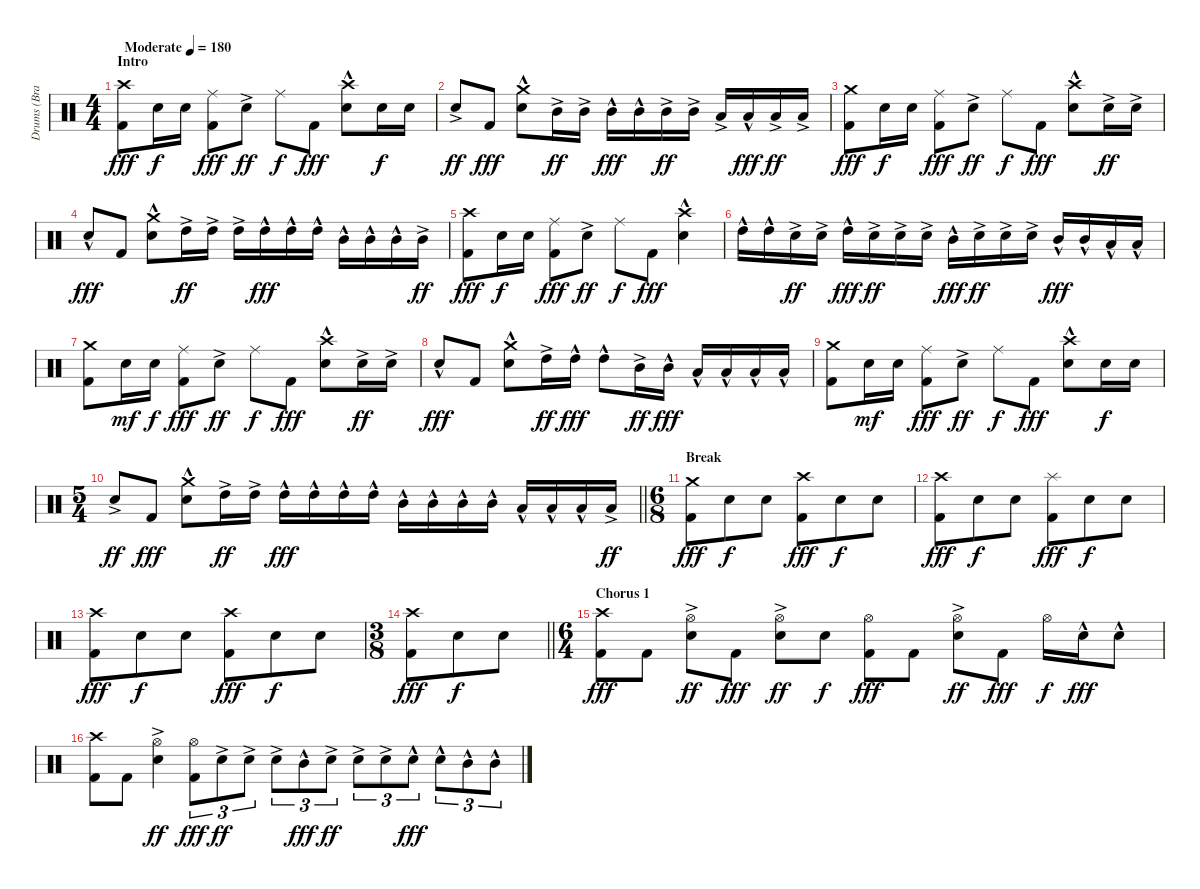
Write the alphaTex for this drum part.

\track ("Drums (Brann Dailor)" "Drums (Bra") {instrument percussion}
\staff {score}
\articulation defaults
\ts (4 4)
\section ("" "Intro")
\tempo (180 "Moderate")
\clef neutral
\ks c
("Crash high (hit)" "Kick (hit) 2").8{dy fff} "Electric Snare (hit)".16{dy f} "Electric Snare (hit)".16 ("Ride (middle)" "Kick (hit) 2").8{dy fff} "Electric Snare (hit)"{ac}.8{dy ff} "Ride (middle)".8{dy f} "Kick (hit) 2".8{dy fff} ("Crash high (hit)" "Electric Snare (hit)"{hac}).8 "Electric Snare (hit)".16{dy f} "Electric Snare (hit)".16 |
"Electric Snare (hit)"{ac}.8{dy ff} "Kick (hit) 2".8{dy fff} ("Crash medium (hit)" "Electric Snare (hit)"{hac}).8 "Mid Tom (hit)"{ac}.16{dy ff} "Mid Tom (hit)"{ac}.16 "Mid Tom (hit)"{hac}.16{dy fff} "Mid Tom (hit)"{hac}.16 "Mid Tom (hit)"{ac}.16{dy ff} "Mid Tom (hit)"{ac}.16 "Low Tom (hit)"{ac}.16 "Low Tom (hit)"{hac}.16{dy fff} "Low Tom (hit)"{ac}.16{dy ff} "Low Tom (hit)"{ac}.16 |
("Crash medium (hit)" "Kick (hit) 2").8{dy fff} "Electric Snare (hit)".16{dy f} "Electric Snare (hit)".16 ("Ride (middle)" "Kick (hit) 2").8{dy fff} "Electric Snare (hit)"{ac}.8{dy ff} "Ride (middle)".8{dy f} "Kick (hit) 2".8{dy fff} ("Crash high (hit)" "Electric Snare (hit)"{hac}).8 "Electric Snare (hit)"{ac}.16{dy ff} "Electric Snare (hit)"{ac}.16 |
"Electric Snare (hit)"{hac}.8{dy fff} "Kick (hit) 2".8 ("Crash medium (hit)" "Electric Snare (hit)"{hac}).8 "High Tom (hit)"{ac}.16{dy ff} "High Tom (hit)"{ac}.16 "High Tom (hit)"{ac}.16 "High Tom (hit)"{hac}.16{dy fff} "High Tom (hit)"{hac}.16 "High Tom (hit)"{hac}.16 "Mid Tom (hit)"{hac}.16 "Mid Tom (hit)"{hac}.16 "Mid Tom (hit)"{hac}.16 "Mid Tom (hit)"{ac}.16{dy ff} |
("Crash high (hit)" "Kick (hit) 2").8{dy fff} "Electric Snare (hit)".16{dy f} "Electric Snare (hit)".16 ("Ride (middle)" "Kick (hit) 2").8{dy fff} "Electric Snare (hit)"{ac}.8{dy ff} "Ride (middle)".8{dy f} "Kick (hit) 2".8{dy fff} ("Crash high (hit)" "Electric Snare (hit)"{hac}).4 |
"High Tom (hit)"{hac}.16 "High Tom (hit)"{hac}.16 "Electric Snare (hit)"{ac}.16{dy ff} "Electric Snare (hit)"{ac}.16 "High Tom (hit)"{hac}.16{dy fff} "Electric Snare (hit)"{ac}.16{dy ff} "Electric Snare (hit)"{ac}.16 "Electric Snare (hit)"{ac}.16 "Mid Tom (hit)"{hac}.16{dy fff} "Electric Snare (hit)"{ac}.16{dy ff} "Electric Snare (hit)"{ac}.16 "Electric Snare (hit)"{ac}.16 "Mid Tom (hit)"{hac}.16{dy fff} "Mid Tom (hit)"{hac}.16 "Low Tom (hit)"{hac}.16 "Low Tom (hit)"{hac}.16 |
("Crash medium (hit)" "Kick (hit) 2").8 "Electric Snare (hit)".16{dy mf} "Electric Snare (hit)".16{dy f} ("Ride (middle)" "Kick (hit) 2").8{dy fff} "Electric Snare (hit)"{ac}.8{dy ff} "Ride (middle)".8{dy f} "Kick (hit) 2".8{dy fff} ("Crash high (hit)" "Electric Snare (hit)"{hac}).8 "Electric Snare (hit)"{ac}.16{dy ff} "Electric Snare (hit)"{ac}.16 |
"Electric Snare (hit)"{hac}.8{dy fff} "Kick (hit) 2".8 ("Crash medium (hit)" "Electric Snare (hit)"{hac}).8 "High Tom (hit)"{ac}.16{dy ff} "High Tom (hit)"{hac}.16{dy fff} "High Tom (hit)"{hac}.8 "Mid Tom (hit)"{ac}.16{dy ff} "Mid Tom (hit)"{hac}.16{dy fff} "Low Tom (hit)"{hac}.16 "Low Tom (hit)"{hac}.16 "Low Tom (hit)"{hac}.16 "Low Tom (hit)"{hac}.16 |
("Crash medium (hit)" "Kick (hit) 2").8 "Electric Snare (hit)".16{dy mf} "Electric Snare (hit)".16 ("Ride (middle)" "Kick (hit) 2").8{dy fff} "Electric Snare (hit)"{ac}.8{dy ff} "Ride (middle)".8{dy f} "Kick (hit) 2".8{dy fff} ("Crash high (hit)" "Electric Snare (hit)"{hac}).8 "Electric Snare (hit)".16{dy f} "Electric Snare (hit)".16 |
\ts (5 4)
\barLineRight lightlight "Electric Snare (hit)"{ac}.8{dy ff} "Kick (hit) 2".8{dy fff}
("Crash medium (hit)" "Electric Snare (hit)"{hac}).8 "High Tom (hit)"{ac}.16{dy ff} "High Tom (hit)"{ac}.16 "High Tom (hit)"{hac}.16{dy fff} "High Tom (hit)"{hac}.16 "High Tom (hit)"{hac}.16 "High Tom (hit)"{hac}.16 "Mid Tom (hit)"{hac}.16 "Mid Tom (hit)"{hac}.16 "Mid Tom (hit)"{hac}.16 "Mid Tom (hit)"{hac}.16 "Low Tom (hit)"{hac}.16 "Low Tom (hit)"{hac}.16 "Low Tom (hit)"{hac}.16 "Low Tom (hit)"{ac}.16{dy ff} |
\ts (6 8)
\section ("" "Break")
("Crash medium (hit)" "Kick (hit) 2").8{dy fff} "Electric Snare (hit)".8{dy f} "Electric Snare (hit)".8 ("Crash high (hit)" "Kick (hit) 2").8{dy fff} "Electric Snare (hit)".8{dy f} "Electric Snare (hit)".8 |
("Crash high (hit)" "Kick (hit) 2").8{dy fff} "Electric Snare (hit)".8{dy f} "Electric Snare (hit)".8 ("Splash (hit)" "Kick (hit) 2").8{dy fff} "Electric Snare (hit)".8{dy f} "Electric Snare (hit)".8 |
("Crash high (hit)" "Kick (hit) 2").8{dy fff} "Electric Snare (hit)".8{dy f} "Electric Snare (hit)".8 ("Crash high (hit)" "Kick (hit) 2").8{dy fff} "Electric Snare (hit)".8{dy f} "Electric Snare (hit)".8 |
\ts (3 8)
\barLineRight lightlight
("Crash high (hit)" "Kick (hit) 2").8{dy fff} "Electric Snare (hit)".8{dy f} "Electric Snare (hit)".8 |
\ts (6 4)
\section ("" "Chorus 1")
("Crash high (hit)" "Kick (hit) 2").8{dy fff} "Kick (hit) 2".8 ("Hi-Hat (open)" "Electric Snare (hit)"{ac}).8{dy ff} "Kick (hit) 2".8{dy fff} ("Hi-Hat (open)" "Electric Snare (hit)"{ac}).8{dy ff} "Electric Snare (hit)".8{dy f} ("Hi-Hat (open)" "Kick (hit) 2").8{dy fff} "Kick (hit) 2".8 ("Hi-Hat (open)" "Electric Snare (hit)"{ac}).8{dy ff} "Kick (hit) 2".8{dy fff} "Hi-Hat (open)".16{dy f} "Electric Snare (hit)"{hac}.16{dy fff} "Electric Snare (hit)"{hac}.8 |
("Crash high (hit)" "Kick (hit) 2").8 "Kick (hit) 2".8 ("Hi-Hat (open)"{ac} "Electric Snare (hit)"{ac}).4{dy ff} ("Hi-Hat (open)" "Kick (hit) 2").8{tu (3 2) dy fff} "Electric Snare (hit)"{ac}.8{tu (3 2) dy ff} "Electric Snare (hit)"{ac}.8{tu (3 2)} "Electric Snare (hit)"{ac}.8{tu (3 2)} "Mid Tom (hit)"{hac}.8{tu (3 2) dy fff} "Electric Snare (hit)"{ac}.8{tu (3 2) dy ff} "Electric Snare (hit)"{ac}.8{tu (3 2)} "Electric Snare (hit)"{ac}.8{tu (3 2)} "Electric Snare (hit)"{hac}.8{tu (3 2) dy fff} "Electric Snare (hit)"{hac}.8{tu (3 2)} "Mid Tom (hit)"{hac}.8{tu (3 2)} "Mid Tom (hit)"{hac}.8{tu (3 2)}
